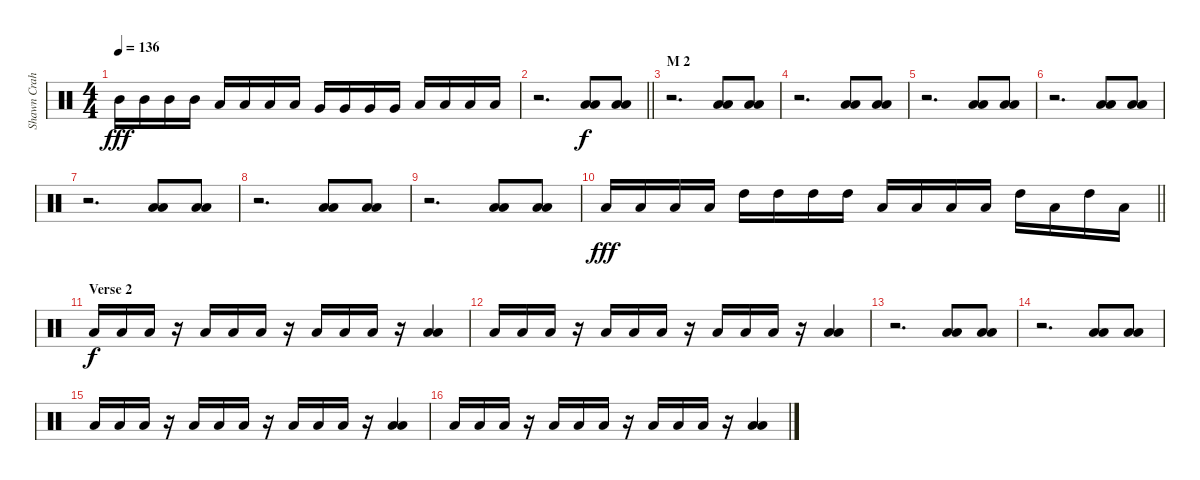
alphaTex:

\track ("Shawn Crahan" "Shawn Crah") {instrument percussion}
\staff {score}
\articulation defaults
\ts (4 4)
\tempo 136
\clef neutral
\ks c "Mid Tom (hit)".16{dy fff} "Mid Tom (hit)".16 "Mid Tom (hit)".16 "Mid Tom (hit)".16 "Low Tom (hit)".16 "Low Tom (hit)".16 "Low Tom (hit)".16 "Low Tom (hit)".16 "Very Low Tom (hit)".16 "Very Low Tom (hit)".16 "Very Low Tom (hit)".16 "Very Low Tom (hit)".16 "Low Floor Tom (hit)".16 "Low Floor Tom (hit)".16 "Low Floor Tom (hit)".16 "Low Floor Tom (hit)".16
|
\barLineRight lightlight
r.2{d} ("Low Floor Tom (hit)" "Low Floor Tom (hit)").8{dy f} ("Low Floor Tom (hit)" "Low Floor Tom (hit)").8 |
\section ("" "M 2")
r.2{d} ("Low Floor Tom (hit)" "Low Floor Tom (hit)").8 ("Low Floor Tom (hit)" "Low Floor Tom (hit)").8 |
r.2{d} ("Low Floor Tom (hit)" "Low Floor Tom (hit)").8 ("Low Floor Tom (hit)" "Low Floor Tom (hit)").8 |
r.2{d} ("Low Floor Tom (hit)" "Low Floor Tom (hit)").8 ("Low Floor Tom (hit)" "Low Floor Tom (hit)").8 |
r.2{d} ("Low Floor Tom (hit)" "Low Floor Tom (hit)").8 ("Low Floor Tom (hit)" "Low Floor Tom (hit)").8 |
r.2{d} ("Low Floor Tom (hit)" "Low Floor Tom (hit)").8 ("Low Floor Tom (hit)" "Low Floor Tom (hit)").8 |
r.2{d} ("Low Floor Tom (hit)" "Low Floor Tom (hit)").8 ("Low Floor Tom (hit)" "Low Floor Tom (hit)").8 |
r.2{d} ("Low Floor Tom (hit)" "Low Floor Tom (hit)").8 ("Low Floor Tom (hit)" "Low Floor Tom (hit)").8 |
\barLineRight lightlight "Low Floor Tom (hit)".16{dy fff} "Low Floor Tom (hit)".16 "Low Floor Tom (hit)".16 "Low Floor Tom (hit)".16 "High Tom (hit)".16 "High Tom (hit)".16 "High Tom (hit)".16 "High Tom (hit)".16 "Low Floor Tom (hit)".16 "Low Floor Tom (hit)".16 "Low Floor Tom (hit)".16 "Low Floor Tom (hit)".16 "High Tom (hit)".16 "Low Floor Tom (hit)".16 "High Tom (hit)".16 "Low Floor Tom (hit)".16
|
\section ("" "Verse 2")
"Low Floor Tom (hit)".16{dy f} "Low Floor Tom (hit)".16 "Low Floor Tom (hit)".16 r.16 "Low Floor Tom (hit)".16 "Low Floor Tom (hit)".16 "Low Floor Tom (hit)".16 r.16 "Low Floor Tom (hit)".16 "Low Floor Tom (hit)".16 "Low Floor Tom (hit)".16 r.16 ("Low Floor Tom (hit)" "Low Floor Tom (hit)").4 |
"Low Floor Tom (hit)".16 "Low Floor Tom (hit)".16 "Low Floor Tom (hit)".16 r.16 "Low Floor Tom (hit)".16 "Low Floor Tom (hit)".16 "Low Floor Tom (hit)".16 r.16 "Low Floor Tom (hit)".16 "Low Floor Tom (hit)".16 "Low Floor Tom (hit)".16 r.16 ("Low Floor Tom (hit)" "Low Floor Tom (hit)").4 |
r.2{d} ("Low Floor Tom (hit)" "Low Floor Tom (hit)").8 ("Low Floor Tom (hit)" "Low Floor Tom (hit)").8 |
r.2{d} ("Low Floor Tom (hit)" "Low Floor Tom (hit)").8 ("Low Floor Tom (hit)" "Low Floor Tom (hit)").8 |
"Low Floor Tom (hit)".16 "Low Floor Tom (hit)".16 "Low Floor Tom (hit)".16 r.16 "Low Floor Tom (hit)".16 "Low Floor Tom (hit)".16 "Low Floor Tom (hit)".16 r.16 "Low Floor Tom (hit)".16 "Low Floor Tom (hit)".16 "Low Floor Tom (hit)".16 r.16 ("Low Floor Tom (hit)" "Low Floor Tom (hit)").4 |
"Low Floor Tom (hit)".16 "Low Floor Tom (hit)".16 "Low Floor Tom (hit)".16 r.16 "Low Floor Tom (hit)".16 "Low Floor Tom (hit)".16 "Low Floor Tom (hit)".16 r.16 "Low Floor Tom (hit)".16 "Low Floor Tom (hit)".16 "Low Floor Tom (hit)".16 r.16 ("Low Floor Tom (hit)" "Low Floor Tom (hit)").4
